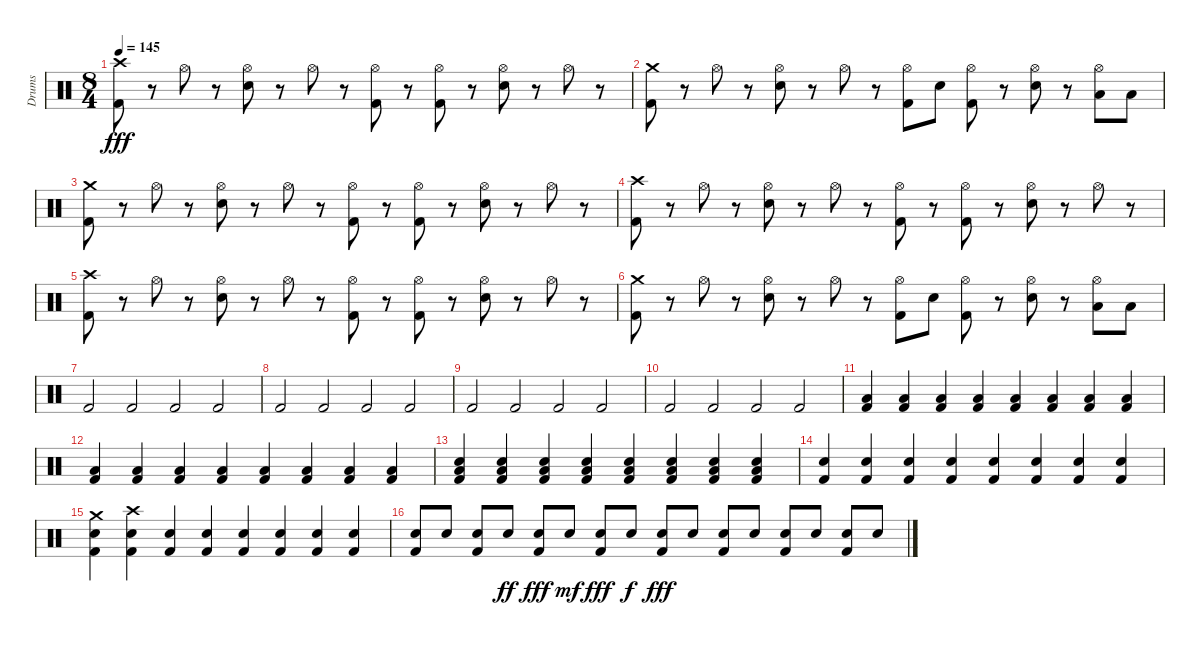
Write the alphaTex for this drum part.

\track ("Drums" "Drums") {instrument percussion}
\staff {score}
\articulation defaults
\ts (8 4)
\tempo 145
\clef neutral
\ks c
("Crash high (hit)" "Kick (hit) 2").8{dy fff} r.8 "Hi-Hat (open)".8 r.8 ("Hi-Hat (open)" "Snare (hit) 2").8 r.8 "Hi-Hat (open)".8 r.8 ("Hi-Hat (open)" "Kick (hit) 2").8 r.8 ("Hi-Hat (open)" "Kick (hit) 2").8 r.8 ("Hi-Hat (open)" "Snare (hit) 2").8 r.8 "Hi-Hat (open)".8 r.8 |
("Crash medium (hit)" "Kick (hit) 2").8 r.8 "Hi-Hat (open)".8 r.8 ("Hi-Hat (open)" "Snare (hit) 2").8 r.8 "Hi-Hat (open)".8 r.8 ("Hi-Hat (open)" "Kick (hit) 2").8 "Snare (hit) 2".8 ("Hi-Hat (open)" "Kick (hit) 2").8 r.8 ("Hi-Hat (open)" "Snare (hit) 2").8 r.8 ("Hi-Hat (open)" "Low Tom (hit)").8 "Low Tom (hit)".8 |
("Crash medium (hit)" "Kick (hit) 2").8 r.8 "Hi-Hat (open)".8 r.8 ("Hi-Hat (open)" "Snare (hit) 2").8 r.8 "Hi-Hat (open)".8 r.8 ("Hi-Hat (open)" "Kick (hit) 2").8 r.8 ("Hi-Hat (open)" "Kick (hit) 2").8 r.8 ("Hi-Hat (open)" "Snare (hit) 2").8 r.8 "Hi-Hat (open)".8 r.8 |
("Crash high (hit)" "Kick (hit) 2").8 r.8 "Hi-Hat (open)".8 r.8 ("Hi-Hat (open)" "Snare (hit) 2").8 r.8 "Hi-Hat (open)".8 r.8 ("Hi-Hat (open)" "Kick (hit) 2").8 r.8 ("Hi-Hat (open)" "Kick (hit) 2").8 r.8 ("Hi-Hat (open)" "Snare (hit) 2").8 r.8 "Hi-Hat (open)".8 r.8 |
("Crash high (hit)" "Kick (hit) 2").8 r.8 "Hi-Hat (open)".8 r.8 ("Hi-Hat (open)" "Snare (hit) 2").8 r.8 "Hi-Hat (open)".8 r.8 ("Hi-Hat (open)" "Kick (hit) 2").8 r.8 ("Hi-Hat (open)" "Kick (hit) 2").8 r.8 ("Hi-Hat (open)" "Snare (hit) 2").8 r.8 "Hi-Hat (open)".8 r.8 |
("Crash medium (hit)" "Kick (hit) 2").8 r.8 "Hi-Hat (open)".8 r.8 ("Hi-Hat (open)" "Snare (hit) 2").8 r.8 "Hi-Hat (open)".8 r.8 ("Hi-Hat (open)" "Kick (hit) 2").8 "Snare (hit) 2".8 ("Hi-Hat (open)" "Kick (hit) 2").8 r.8 ("Hi-Hat (open)" "Snare (hit) 2").8 r.8 ("Hi-Hat (open)" "Low Tom (hit)").8 "Low Tom (hit)".8 |
"Kick (hit) 2".2 "Kick (hit) 2".2 "Kick (hit) 2".2 "Kick (hit) 2".2 |
"Kick (hit) 2".2 "Kick (hit) 2".2 "Kick (hit) 2".2 "Kick (hit) 2".2 |
"Kick (hit) 2".2 "Kick (hit) 2".2 "Kick (hit) 2".2 "Kick (hit) 2".2 |
"Kick (hit) 2".2 "Kick (hit) 2".2 "Kick (hit) 2".2 "Kick (hit) 2".2 |
("Low Floor Tom (hit)" "Kick (hit) 2").4 ("Low Floor Tom (hit)" "Kick (hit) 2").4 ("Low Floor Tom (hit)" "Kick (hit) 2").4 ("Low Floor Tom (hit)" "Kick (hit) 2").4 ("Low Floor Tom (hit)" "Kick (hit) 2").4 ("Low Floor Tom (hit)" "Kick (hit) 2").4 ("Low Floor Tom (hit)" "Kick (hit) 2").4 ("Low Floor Tom (hit)" "Kick (hit) 2").4 |
("Low Floor Tom (hit)" "Kick (hit) 2").4 ("Low Floor Tom (hit)" "Kick (hit) 2").4 ("Low Floor Tom (hit)" "Kick (hit) 2").4 ("Low Floor Tom (hit)" "Kick (hit) 2").4 ("Low Floor Tom (hit)" "Kick (hit) 2").4 ("Low Floor Tom (hit)" "Kick (hit) 2").4 ("Low Floor Tom (hit)" "Kick (hit) 2").4 ("Low Floor Tom (hit)" "Kick (hit) 2").4 |
("Snare (hit) 2" "Low Floor Tom (hit)" "Kick (hit) 2").4 ("Snare (hit) 2" "Low Floor Tom (hit)" "Kick (hit) 2").4 ("Snare (hit) 2" "Low Floor Tom (hit)" "Kick (hit) 2").4 ("Snare (hit) 2" "Low Floor Tom (hit)" "Kick (hit) 2").4 ("Snare (hit) 2" "Low Floor Tom (hit)" "Kick (hit) 2").4 ("Snare (hit) 2" "Low Floor Tom (hit)" "Kick (hit) 2").4 ("Snare (hit) 2" "Low Floor Tom (hit)" "Kick (hit) 2").4 ("Snare (hit) 2" "Low Floor Tom (hit)" "Kick (hit) 2").4 |
("Snare (hit) 2" "Kick (hit) 2").4 ("Snare (hit) 2" "Kick (hit) 2").4 ("Snare (hit) 2" "Kick (hit) 2").4 ("Snare (hit) 2" "Kick (hit) 2").4 ("Snare (hit) 2" "Kick (hit) 2").4 ("Snare (hit) 2" "Kick (hit) 2").4 ("Snare (hit) 2" "Kick (hit) 2").4 ("Snare (hit) 2" "Kick (hit) 2").4 |
("Crash medium (hit)" "Snare (hit) 2" "Kick (hit) 2").4 ("Crash high (hit)" "Snare (hit) 2" "Kick (hit) 2").4 ("Snare (hit) 2" "Kick (hit) 2").4 ("Snare (hit) 2" "Kick (hit) 2").4 ("Snare (hit) 2" "Kick (hit) 2").4 ("Snare (hit) 2" "Kick (hit) 2").4 ("Snare (hit) 2" "Kick (hit) 2").4 ("Snare (hit) 2" "Kick (hit) 2").4 |
("Snare (hit) 2" "Kick (hit) 2").8 "Snare (hit) 2".8 ("Snare (hit) 2" "Kick (hit) 2").8 "Snare (hit) 2".8{dy ff} ("Snare (hit) 2" "Kick (hit) 2").8{dy fff} "Snare (hit) 2".8{dy mf} ("Snare (hit) 2" "Kick (hit) 2").8{dy fff} "Snare (hit) 2".8{dy f} ("Snare (hit) 2" "Kick (hit) 2").8{dy fff} "Snare (hit) 2".8 ("Snare (hit) 2" "Kick (hit) 2").8 "Snare (hit) 2".8 ("Snare (hit) 2" "Kick (hit) 2").8 "Snare (hit) 2".8 ("Snare (hit) 2" "Kick (hit) 2").8 "Snare (hit) 2".8
